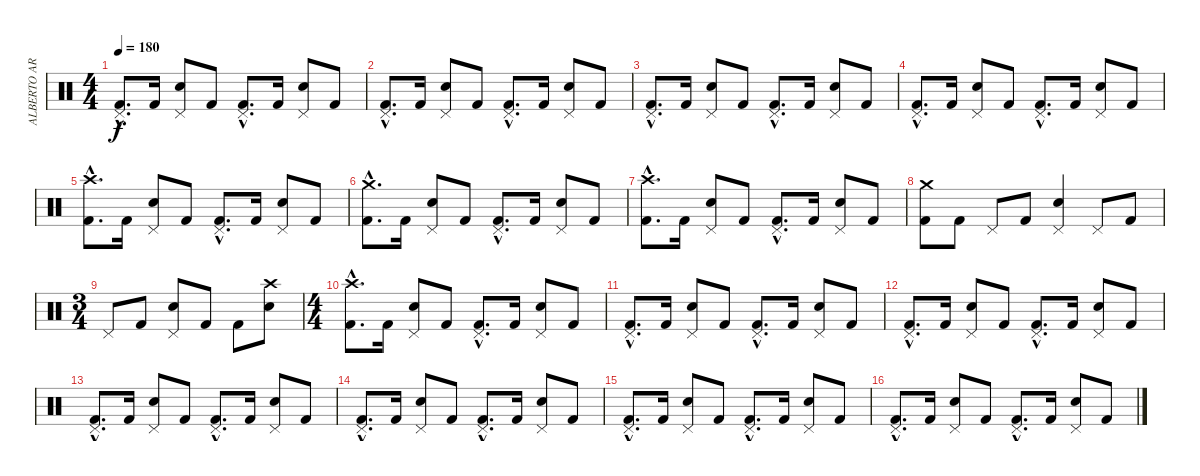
\track ("ALBERTO ARDINES" "ALBERTO AR") {instrument percussion}
\staff {score}
\articulation defaults
\ts (4 4)
\tempo 180
\clef neutral
\ks c
("Pedal Hi-Hat (hit)"{hac} "Kick (hit) 2"{hac}).8{d dy f} "Kick (hit) 2".16 ("Pedal Hi-Hat (hit)" "Electric Snare (hit)").8 "Kick (hit) 2".8 ("Pedal Hi-Hat (hit)"{hac} "Kick (hit) 2"{hac}).8{d} "Kick (hit) 2".16 ("Pedal Hi-Hat (hit)" "Electric Snare (hit)").8 "Kick (hit) 2".8 |
("Pedal Hi-Hat (hit)"{hac} "Kick (hit) 2"{hac}).8{d} "Kick (hit) 2".16 ("Pedal Hi-Hat (hit)" "Electric Snare (hit)").8 "Kick (hit) 2".8 ("Pedal Hi-Hat (hit)"{hac} "Kick (hit) 2"{hac}).8{d} "Kick (hit) 2".16 ("Pedal Hi-Hat (hit)" "Electric Snare (hit)").8 "Kick (hit) 2".8 |
("Pedal Hi-Hat (hit)"{hac} "Kick (hit) 2"{hac}).8{d} "Kick (hit) 2".16 ("Pedal Hi-Hat (hit)" "Electric Snare (hit)").8 "Kick (hit) 2".8 ("Pedal Hi-Hat (hit)"{hac} "Kick (hit) 2"{hac}).8{d} "Kick (hit) 2".16 ("Pedal Hi-Hat (hit)" "Electric Snare (hit)").8 "Kick (hit) 2".8 |
("Pedal Hi-Hat (hit)"{hac} "Kick (hit) 2"{hac}).8{d} "Kick (hit) 2".16 ("Pedal Hi-Hat (hit)" "Electric Snare (hit)").8 "Kick (hit) 2".8 ("Pedal Hi-Hat (hit)"{hac} "Kick (hit) 2"{hac}).8{d} "Kick (hit) 2".16 ("Pedal Hi-Hat (hit)" "Electric Snare (hit)").8 "Kick (hit) 2".8 |
("Crash high (hit)"{hac} "Kick (hit) 2"{hac}).8{d} "Kick (hit) 2".16 ("Pedal Hi-Hat (hit)" "Electric Snare (hit)").8 "Kick (hit) 2".8 ("Pedal Hi-Hat (hit)"{hac} "Kick (hit) 2"{hac}).8{d} "Kick (hit) 2".16 ("Pedal Hi-Hat (hit)" "Electric Snare (hit)").8 "Kick (hit) 2".8 |
("Crash medium (hit)"{hac} "Kick (hit) 2"{hac}).8{d} "Kick (hit) 2".16 ("Pedal Hi-Hat (hit)" "Electric Snare (hit)").8 "Kick (hit) 2".8 ("Pedal Hi-Hat (hit)"{hac} "Kick (hit) 2"{hac}).8{d} "Kick (hit) 2".16 ("Pedal Hi-Hat (hit)" "Electric Snare (hit)").8 "Kick (hit) 2".8 |
("Crash high (hit)"{hac} "Kick (hit) 2"{hac}).8{d} "Kick (hit) 2".16 ("Pedal Hi-Hat (hit)" "Electric Snare (hit)").8 "Kick (hit) 2".8 ("Pedal Hi-Hat (hit)"{hac} "Kick (hit) 2"{hac}).8{d} "Kick (hit) 2".16 ("Pedal Hi-Hat (hit)" "Electric Snare (hit)").8 "Kick (hit) 2".8 |
("Crash medium (hit)" "Kick (hit) 2").8 "Kick (hit) 2".8 "Pedal Hi-Hat (hit)".8 "Kick (hit) 2".8 ("Pedal Hi-Hat (hit)" "Electric Snare (hit)").4 "Pedal Hi-Hat (hit)".8 "Kick (hit) 2".8 |
\ts (3 4)
"Pedal Hi-Hat (hit)".8 "Kick (hit) 2".8 ("Pedal Hi-Hat (hit)" "Electric Snare (hit)").8 "Kick (hit) 2".8 "Kick (hit) 2".8 ("Crash high (hit)" "Electric Snare (hit)").8 |
\ts (4 4)
("Crash high (hit)"{hac} "Kick (hit) 2"{hac}).8{d} "Kick (hit) 2".16 ("Pedal Hi-Hat (hit)" "Electric Snare (hit)").8 "Kick (hit) 2".8 ("Pedal Hi-Hat (hit)"{hac} "Kick (hit) 2"{hac}).8{d} "Kick (hit) 2".16 ("Pedal Hi-Hat (hit)" "Electric Snare (hit)").8 "Kick (hit) 2".8 |
("Pedal Hi-Hat (hit)"{hac} "Kick (hit) 2"{hac}).8{d} "Kick (hit) 2".16 ("Pedal Hi-Hat (hit)" "Electric Snare (hit)").8 "Kick (hit) 2".8 ("Pedal Hi-Hat (hit)"{hac} "Kick (hit) 2"{hac}).8{d} "Kick (hit) 2".16 ("Pedal Hi-Hat (hit)" "Electric Snare (hit)").8 "Kick (hit) 2".8 |
("Pedal Hi-Hat (hit)"{hac} "Kick (hit) 2"{hac}).8{d} "Kick (hit) 2".16 ("Pedal Hi-Hat (hit)" "Electric Snare (hit)").8 "Kick (hit) 2".8 ("Pedal Hi-Hat (hit)"{hac} "Kick (hit) 2"{hac}).8{d} "Kick (hit) 2".16 ("Pedal Hi-Hat (hit)" "Electric Snare (hit)").8 "Kick (hit) 2".8 |
("Pedal Hi-Hat (hit)"{hac} "Kick (hit) 2"{hac}).8{d} "Kick (hit) 2".16 ("Pedal Hi-Hat (hit)" "Electric Snare (hit)").8 "Kick (hit) 2".8 ("Pedal Hi-Hat (hit)"{hac} "Kick (hit) 2"{hac}).8{d} "Kick (hit) 2".16 ("Pedal Hi-Hat (hit)" "Electric Snare (hit)").8 "Kick (hit) 2".8 |
("Pedal Hi-Hat (hit)"{hac} "Kick (hit) 2"{hac}).8{d} "Kick (hit) 2".16 ("Pedal Hi-Hat (hit)" "Electric Snare (hit)").8 "Kick (hit) 2".8 ("Pedal Hi-Hat (hit)"{hac} "Kick (hit) 2"{hac}).8{d} "Kick (hit) 2".16 ("Pedal Hi-Hat (hit)" "Electric Snare (hit)").8 "Kick (hit) 2".8 |
("Pedal Hi-Hat (hit)"{hac} "Kick (hit) 2"{hac}).8{d} "Kick (hit) 2".16 ("Pedal Hi-Hat (hit)" "Electric Snare (hit)").8 "Kick (hit) 2".8 ("Pedal Hi-Hat (hit)"{hac} "Kick (hit) 2"{hac}).8{d} "Kick (hit) 2".16 ("Pedal Hi-Hat (hit)" "Electric Snare (hit)").8 "Kick (hit) 2".8 |
("Pedal Hi-Hat (hit)"{hac} "Kick (hit) 2"{hac}).8{d} "Kick (hit) 2".16 ("Pedal Hi-Hat (hit)" "Electric Snare (hit)").8 "Kick (hit) 2".8 ("Pedal Hi-Hat (hit)"{hac} "Kick (hit) 2"{hac}).8{d} "Kick (hit) 2".16 ("Pedal Hi-Hat (hit)" "Electric Snare (hit)").8 "Kick (hit) 2".8
